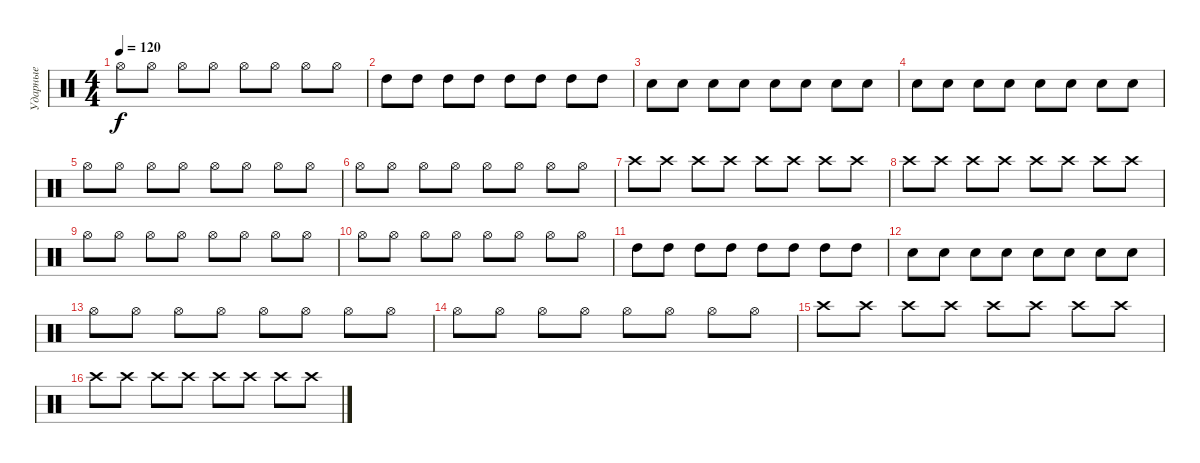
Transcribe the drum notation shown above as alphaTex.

\track ("Ударные" "Ударные") {instrument percussion}
\staff {score}
\articulation defaults
\ts (4 4)
\tempo 120
\clef neutral
\ks c "Hi-Hat (open)".8{dy f} "Hi-Hat (open)".8 "Hi-Hat (open)".8 "Hi-Hat (open)".8 "Hi-Hat (open)".8 "Hi-Hat (open)".8 "Hi-Hat (open)".8 "Hi-Hat (open)".8
|
"High Tom (hit)".8 "High Tom (hit)".8 "High Tom (hit)".8 "High Tom (hit)".8 "High Tom (hit)".8 "High Tom (hit)".8 "High Tom (hit)".8 "High Tom (hit)".8 |
"Electric Snare (hit)".8 "Electric Snare (hit)".8 "Electric Snare (hit)".8 "Electric Snare (hit)".8 "Electric Snare (hit)".8 "Electric Snare (hit)".8 "Electric Snare (hit)".8 "Electric Snare (hit)".8 |
"Electric Snare (hit)".8 "Electric Snare (hit)".8 "Electric Snare (hit)".8 "Electric Snare (hit)".8 "Electric Snare (hit)".8 "Electric Snare (hit)".8 "Electric Snare (hit)".8 "Electric Snare (hit)".8 |
"Hi-Hat (open)".8 "Hi-Hat (open)".8 "Hi-Hat (open)".8 "Hi-Hat (open)".8 "Hi-Hat (open)".8 "Hi-Hat (open)".8 "Hi-Hat (open)".8 "Hi-Hat (open)".8 |
"Hi-Hat (open)".8 "Hi-Hat (open)".8 "Hi-Hat (open)".8 "Hi-Hat (open)".8 "Hi-Hat (open)".8 "Hi-Hat (open)".8 "Hi-Hat (open)".8 "Hi-Hat (open)".8 |
"Crash high (hit)".8 "Crash high (hit)".8 "Crash high (hit)".8 "Crash high (hit)".8 "Crash high (hit)".8 "Crash high (hit)".8 "Crash high (hit)".8 "Crash high (hit)".8 |
"Crash high (hit)".8 "Crash high (hit)".8 "Crash high (hit)".8 "Crash high (hit)".8 "Crash high (hit)".8 "Crash high (hit)".8 "Crash high (hit)".8 "Crash high (hit)".8 |
"Hi-Hat (open)".8 "Hi-Hat (open)".8 "Hi-Hat (open)".8 "Hi-Hat (open)".8 "Hi-Hat (open)".8 "Hi-Hat (open)".8 "Hi-Hat (open)".8 "Hi-Hat (open)".8 |
"Hi-Hat (open)".8 "Hi-Hat (open)".8 "Hi-Hat (open)".8 "Hi-Hat (open)".8 "Hi-Hat (open)".8 "Hi-Hat (open)".8 "Hi-Hat (open)".8 "Hi-Hat (open)".8 |
"High Tom (hit)".8 "High Tom (hit)".8 "High Tom (hit)".8 "High Tom (hit)".8 "High Tom (hit)".8 "High Tom (hit)".8 "High Tom (hit)".8 "High Tom (hit)".8 |
"Electric Snare (hit)".8 "Electric Snare (hit)".8 "Electric Snare (hit)".8 "Electric Snare (hit)".8 "Electric Snare (hit)".8 "Electric Snare (hit)".8 "Electric Snare (hit)".8 "Electric Snare (hit)".8 |
"Hi-Hat (open)".8 "Hi-Hat (open)".8 "Hi-Hat (open)".8 "Hi-Hat (open)".8 "Hi-Hat (open)".8 "Hi-Hat (open)".8 "Hi-Hat (open)".8 "Hi-Hat (open)".8 |
"Hi-Hat (open)".8 "Hi-Hat (open)".8 "Hi-Hat (open)".8 "Hi-Hat (open)".8 "Hi-Hat (open)".8 "Hi-Hat (open)".8 "Hi-Hat (open)".8 "Hi-Hat (open)".8 |
"Crash high (hit)".8 "Crash high (hit)".8 "Crash high (hit)".8 "Crash high (hit)".8 "Crash high (hit)".8 "Crash high (hit)".8 "Crash high (hit)".8 "Crash high (hit)".8 |
"Crash high (hit)".8 "Crash high (hit)".8 "Crash high (hit)".8 "Crash high (hit)".8 "Crash high (hit)".8 "Crash high (hit)".8 "Crash high (hit)".8 "Crash high (hit)".8
